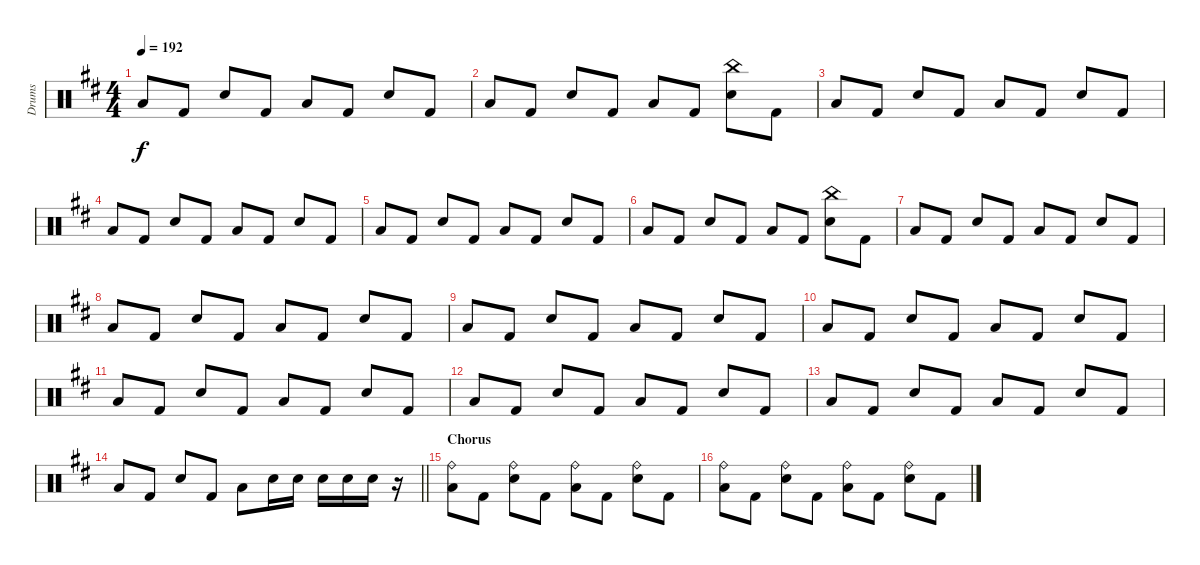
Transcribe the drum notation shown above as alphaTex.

\track ("Drums" "Drums") {instrument percussion}
\staff {score}
\articulation defaults
\ts (4 4)
\tempo 192
\clef neutral
\ks d "Low Tom (hit)".8{dy f} "Kick (hit) 2".8 "Snare (hit) 2".8 "Kick (hit) 2".8 "Low Tom (hit)".8 "Kick (hit) 2".8 "Snare (hit) 2".8 "Kick (hit) 2".8
|
"Low Tom (hit)".8 "Kick (hit) 2".8 "Snare (hit) 2".8 "Kick (hit) 2".8 "Low Tom (hit)".8 "Kick (hit) 2".8 ("China (hit)" "Snare (hit) 2").8 "Kick (hit) 2".8 |
"Low Tom (hit)".8 "Kick (hit) 2".8 "Snare (hit) 2".8 "Kick (hit) 2".8 "Low Tom (hit)".8 "Kick (hit) 2".8 "Snare (hit) 2".8 "Kick (hit) 2".8 |
"Low Tom (hit)".8 "Kick (hit) 2".8 "Snare (hit) 2".8 "Kick (hit) 2".8 "Low Tom (hit)".8 "Kick (hit) 2".8 "Snare (hit) 2".8 "Kick (hit) 2".8 |
"Low Tom (hit)".8 "Kick (hit) 2".8 "Snare (hit) 2".8 "Kick (hit) 2".8 "Low Tom (hit)".8 "Kick (hit) 2".8 "Snare (hit) 2".8 "Kick (hit) 2".8 |
"Low Tom (hit)".8 "Kick (hit) 2".8 "Snare (hit) 2".8 "Kick (hit) 2".8 "Low Tom (hit)".8 "Kick (hit) 2".8 ("China (hit)" "Snare (hit) 2").8 "Kick (hit) 2".8 |
"Low Tom (hit)".8 "Kick (hit) 2".8 "Snare (hit) 2".8 "Kick (hit) 2".8 "Low Tom (hit)".8 "Kick (hit) 2".8 "Snare (hit) 2".8 "Kick (hit) 2".8 |
"Low Tom (hit)".8 "Kick (hit) 2".8 "Snare (hit) 2".8 "Kick (hit) 2".8 "Low Tom (hit)".8 "Kick (hit) 2".8 "Snare (hit) 2".8 "Kick (hit) 2".8 |
"Low Tom (hit)".8 "Kick (hit) 2".8 "Snare (hit) 2".8 "Kick (hit) 2".8 "Low Tom (hit)".8 "Kick (hit) 2".8 "Snare (hit) 2".8 "Kick (hit) 2".8 |
"Low Tom (hit)".8 "Kick (hit) 2".8 "Snare (hit) 2".8 "Kick (hit) 2".8 "Low Tom (hit)".8 "Kick (hit) 2".8 "Snare (hit) 2".8 "Kick (hit) 2".8 |
"Low Tom (hit)".8 "Kick (hit) 2".8 "Snare (hit) 2".8 "Kick (hit) 2".8 "Low Tom (hit)".8 "Kick (hit) 2".8 "Snare (hit) 2".8 "Kick (hit) 2".8 |
"Low Tom (hit)".8 "Kick (hit) 2".8 "Snare (hit) 2".8 "Kick (hit) 2".8 "Low Tom (hit)".8 "Kick (hit) 2".8 "Snare (hit) 2".8 "Kick (hit) 2".8 |
"Low Tom (hit)".8 "Kick (hit) 2".8 "Snare (hit) 2".8 "Kick (hit) 2".8 "Low Tom (hit)".8 "Kick (hit) 2".8 "Snare (hit) 2".8 "Kick (hit) 2".8 |
\barLineRight lightlight "Low Tom (hit)".8 "Kick (hit) 2".8 "Snare (hit) 2".8 "Kick (hit) 2".8 "Low Tom (hit)".8 "Snare (hit) 2".16 "Snare (hit) 2".16 "Snare (hit) 2".16 "Snare (hit) 2".16 "Snare (hit) 2".16
r.16 |
\section ("" "Chorus")
("Ride (bell)" "Low Tom (hit)").8 "Kick (hit) 2".8 ("Ride (bell)" "Snare (hit) 2").8 "Kick (hit) 2".8 ("Ride (bell)" "Low Tom (hit)").8 "Kick (hit) 2".8 ("Ride (bell)" "Snare (hit) 2").8 "Kick (hit) 2".8 |
("Ride (bell)" "Low Tom (hit)").8 "Kick (hit) 2".8 ("Ride (bell)" "Snare (hit) 2").8 "Kick (hit) 2".8 ("Ride (bell)" "Low Tom (hit)").8 "Kick (hit) 2".8 ("Ride (bell)" "Snare (hit) 2").8 "Kick (hit) 2".8
